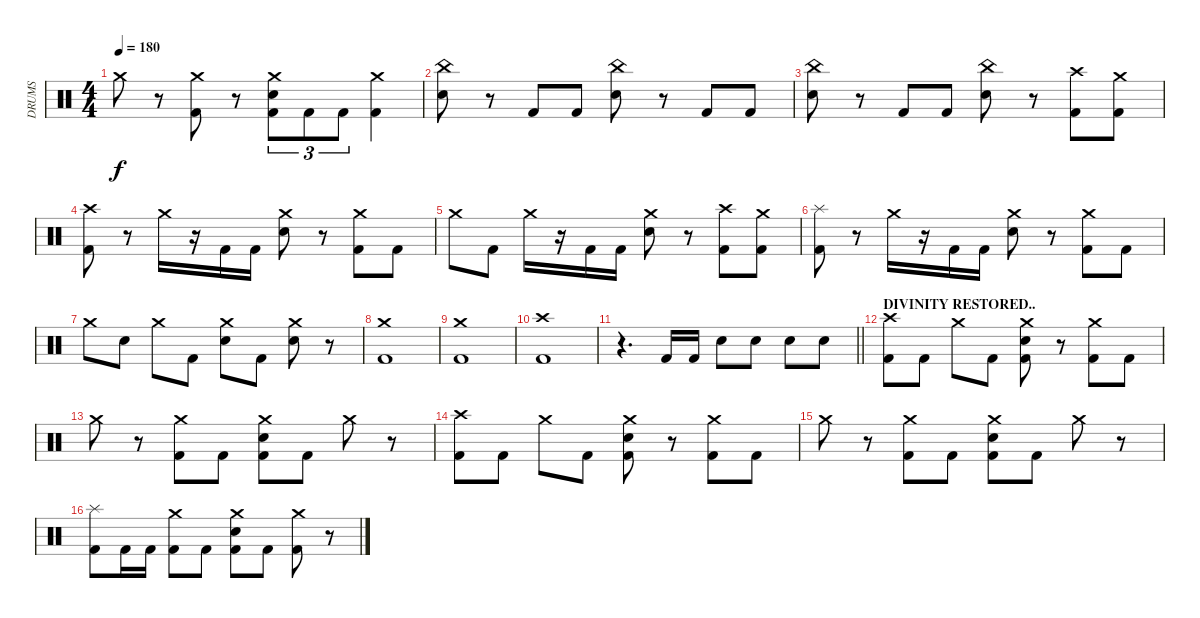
\track ("DRUMS" "DRUMS") {instrument percussion}
\staff {score}
\articulation defaults
\ts (4 4)
\tempo 180
\clef neutral
\ks c "Crash medium (hit)".8{dy f}
r.8 ("Crash medium (hit)" "Kick (hit) 2").8 r.8 ("Crash medium (hit)" "Electric Snare (hit)" "Kick (hit) 2").8{tu (3 2)} "Kick (hit) 2".8{tu (3 2)} "Kick (hit) 2".8{tu (3 2)} ("Crash medium (hit)" "Kick (hit) 2").4 |
("China (hit)" "Electric Snare (hit)").8 r.8 "Kick (hit) 2".8 "Kick (hit) 2".8 ("China (hit)" "Electric Snare (hit)").8 r.8 "Kick (hit) 2".8 "Kick (hit) 2".8 |
("China (hit)" "Electric Snare (hit)").8 r.8 "Kick (hit) 2".8 "Kick (hit) 2".8 ("China (hit)" "Electric Snare (hit)").8 r.8 ("Crash high (hit)" "Kick (hit) 2").8 ("Crash medium (hit)" "Kick (hit) 2").8 |
("Crash high (hit)" "Kick (hit) 2").8 r.8 "Crash medium (hit)".16 r.16 "Kick (hit) 2".16 "Kick (hit) 2".16 ("Crash medium (hit)" "Electric Snare (hit)").8 r.8 ("Crash medium (hit)" "Kick (hit) 2").8 "Kick (hit) 2".8 |
"Crash medium (hit)".8 "Kick (hit) 2".8 "Crash medium (hit)".16 r.16 "Kick (hit) 2".16 "Kick (hit) 2".16 ("Crash medium (hit)" "Electric Snare (hit)").8 r.8 ("Crash high (hit)" "Kick (hit) 2").8 ("Crash medium (hit)" "Kick (hit) 2").8 |
("Splash (hit)" "Kick (hit) 2").8 r.8 "Crash medium (hit)".16 r.16 "Kick (hit) 2".16 "Kick (hit) 2".16 ("Crash medium (hit)" "Electric Snare (hit)").8 r.8 ("Crash medium (hit)" "Kick (hit) 2").8 "Kick (hit) 2".8 |
"Crash medium (hit)".8 "Electric Snare (hit)".8 "Crash medium (hit)".8 "Kick (hit) 2".8 ("Crash medium (hit)" "Electric Snare (hit)").8 "Kick (hit) 2".8 ("Crash medium (hit)" "Electric Snare (hit)").8 r.8 |
("Crash medium (hit)" "Kick (hit) 2").1 |
("Crash medium (hit)" "Kick (hit) 2").1 |
("Crash high (hit)" "Kick (hit) 2").1 |
\barLineRight lightlight
r.4{d} "Kick (hit) 2".16 "Kick (hit) 2".16 "Electric Snare (hit)".8 "Electric Snare (hit)".8 "Electric Snare (hit)".8 "Electric Snare (hit)".8 |
\section ("" "DIVINITY RESTORED..")
("Crash high (hit)" "Kick (hit) 2").8 "Kick (hit) 2".8 "Crash medium (hit)".8 "Kick (hit) 2".8 ("Crash medium (hit)" "Electric Snare (hit)" "Kick (hit) 2").8 r.8 ("Crash medium (hit)" "Kick (hit) 2").8 "Kick (hit) 2".8 |
"Crash medium (hit)".8 r.8 ("Crash medium (hit)" "Kick (hit) 2").8 "Kick (hit) 2".8 ("Crash medium (hit)" "Electric Snare (hit)" "Kick (hit) 2").8 "Kick (hit) 2".8 "Crash medium (hit)".8 r.8 |
("Crash high (hit)" "Kick (hit) 2").8 "Kick (hit) 2".8 "Crash medium (hit)".8 "Kick (hit) 2".8 ("Crash medium (hit)" "Electric Snare (hit)" "Kick (hit) 2").8 r.8 ("Crash medium (hit)" "Kick (hit) 2").8 "Kick (hit) 2".8 |
"Crash medium (hit)".8 r.8 ("Crash medium (hit)" "Kick (hit) 2").8 "Kick (hit) 2".8 ("Crash medium (hit)" "Electric Snare (hit)" "Kick (hit) 2").8 "Kick (hit) 2".8 "Crash medium (hit)".8 r.8 |
("Splash (hit)" "Kick (hit) 2").8 "Kick (hit) 2".16 "Kick (hit) 2".16 ("Crash medium (hit)" "Kick (hit) 2").8 "Kick (hit) 2".8 ("Crash medium (hit)" "Electric Snare (hit)" "Kick (hit) 2").8 "Kick (hit) 2".8 ("Crash medium (hit)" "Kick (hit) 2").8 r.8
